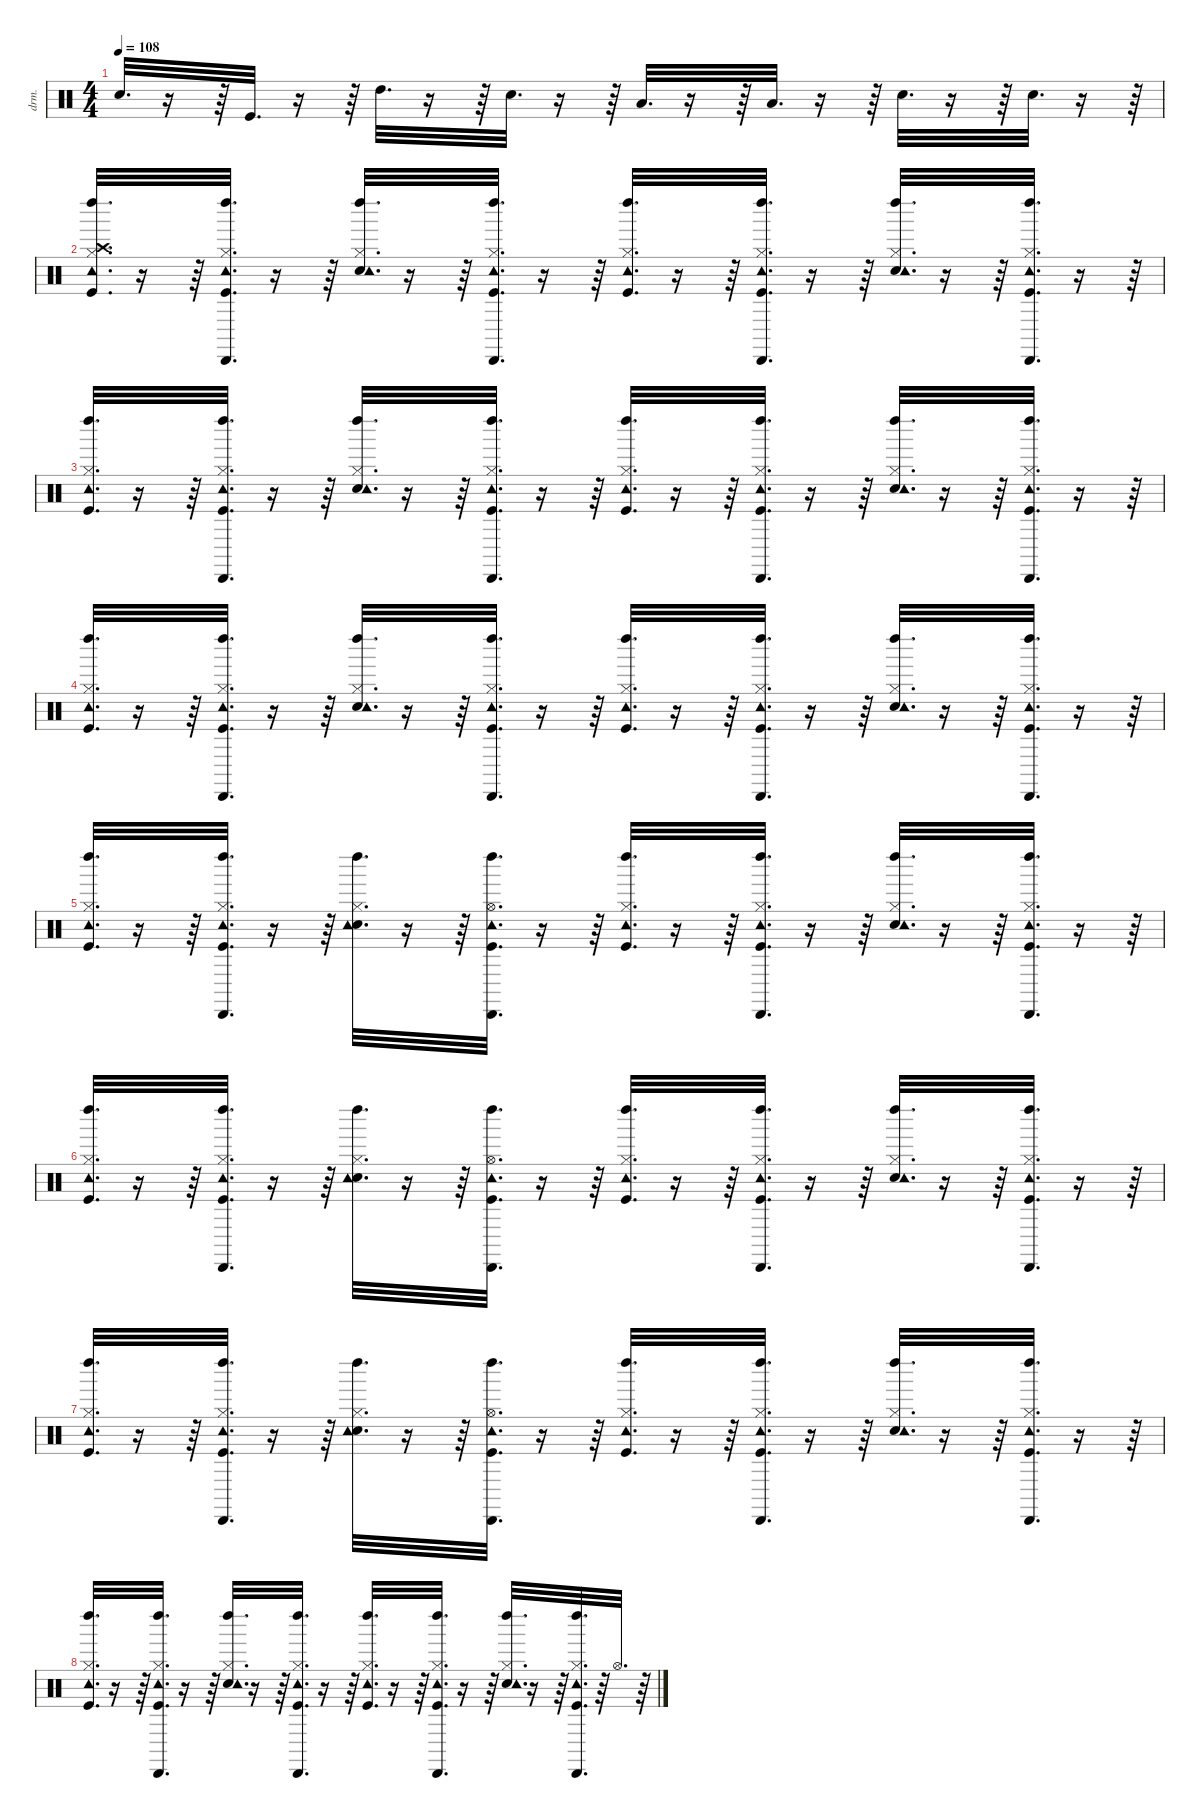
\defaultSystemsLayout 4
\hideDynamics
\bracketExtendMode nobrackets
\otherSystemsTrackNameOrientation horizontal
\track ("Percussions" "drm.") {instrument percussion}
\staff {score}
\articulation defaults
\ts (4 4)
\tempo 108
\clef neutral
\ks c "Snare (hit) 2".32{d dy f}
r.16 r.64 "Kick (hit)".32{d} r.16 r.64 "High Tom (hit)".32{d} r.16 r.64 "Snare (hit) 2".32{d} r.16 r.64 "Low Tom (hit)".32{d} r.16 r.64 "Low Tom (hit)".32{d} r.16 r.64 "Snare (hit) 2".32{d} r.16 r.64 "Snare (hit) 2".32{d} r.16 r.64 |
("Left Maraca (hit)" "Crash high (hit)" "Kick (hit)" "Hi-Hat (closed)" "Tambourine (hit)").32{d} r.16 r.64 ("Cabasa (hit)" "Tambourine (hit)" "Kick (hit)" "Hi-Hat (closed)" "Left Maraca (hit)").32{d} r.16 r.64 ("Left Maraca (hit)" "Snare (hit) 2" "Hi-Hat (closed)" "Tambourine (hit)").32{d} r.16 r.64 ("Cabasa (hit)" "Tambourine (hit)" "Kick (hit)" "Hi-Hat (closed)" "Left Maraca (hit)").32{d} r.16 r.64 ("Left Maraca (hit)" "Kick (hit)" "Hi-Hat (closed)" "Tambourine (hit)").32{d} r.16 r.64 ("Cabasa (hit)" "Tambourine (hit)" "Kick (hit)" "Hi-Hat (closed)" "Left Maraca (hit)").32{d} r.16 r.64 ("Left Maraca (hit)" "Snare (hit) 2" "Hi-Hat (closed)" "Tambourine (hit)").32{d} r.16 r.64 ("Cabasa (hit)" "Tambourine (hit)" "Kick (hit)" "Hi-Hat (closed)" "Left Maraca (hit)").32{d} r.16 r.64 |
("Left Maraca (hit)" "Kick (hit)" "Hi-Hat (closed)" "Tambourine (hit)").32{d} r.16 r.64 ("Cabasa (hit)" "Tambourine (hit)" "Kick (hit)" "Hi-Hat (closed)" "Left Maraca (hit)").32{d} r.16 r.64 ("Left Maraca (hit)" "Snare (hit) 2" "Hi-Hat (closed)" "Tambourine (hit)").32{d} r.16 r.64 ("Cabasa (hit)" "Tambourine (hit)" "Kick (hit)" "Hi-Hat (closed)" "Left Maraca (hit)").32{d} r.16 r.64 ("Left Maraca (hit)" "Kick (hit)" "Hi-Hat (closed)" "Tambourine (hit)").32{d} r.16 r.64 ("Cabasa (hit)" "Tambourine (hit)" "Kick (hit)" "Hi-Hat (closed)" "Left Maraca (hit)").32{d} r.16 r.64 ("Left Maraca (hit)" "Snare (hit) 2" "Hi-Hat (closed)" "Tambourine (hit)").32{d} r.16 r.64 ("Cabasa (hit)" "Tambourine (hit)" "Kick (hit)" "Hi-Hat (closed)" "Left Maraca (hit)").32{d} r.16 r.64 |
("Left Maraca (hit)" "Kick (hit)" "Hi-Hat (closed)" "Tambourine (hit)").32{d} r.16 r.64 ("Cabasa (hit)" "Tambourine (hit)" "Kick (hit)" "Hi-Hat (closed)" "Left Maraca (hit)").32{d} r.16 r.64 ("Left Maraca (hit)" "Snare (hit) 2" "Hi-Hat (closed)" "Tambourine (hit)").32{d} r.16 r.64 ("Cabasa (hit)" "Tambourine (hit)" "Kick (hit)" "Hi-Hat (closed)" "Left Maraca (hit)").32{d} r.16 r.64 ("Left Maraca (hit)" "Kick (hit)" "Hi-Hat (closed)" "Tambourine (hit)").32{d} r.16 r.64 ("Cabasa (hit)" "Tambourine (hit)" "Kick (hit)" "Hi-Hat (closed)" "Left Maraca (hit)").32{d} r.16 r.64 ("Left Maraca (hit)" "Snare (hit) 2" "Hi-Hat (closed)" "Tambourine (hit)").32{d} r.16 r.64 ("Cabasa (hit)" "Tambourine (hit)" "Kick (hit)" "Hi-Hat (closed)" "Left Maraca (hit)").32{d} r.16 r.64 |
("Left Maraca (hit)" "Kick (hit)" "Hi-Hat (closed)" "Tambourine (hit)").32{d} r.16 r.64 ("Cabasa (hit)" "Tambourine (hit)" "Kick (hit)" "Hi-Hat (closed)" "Left Maraca (hit)").32{d} r.16 r.64 ("Left Maraca (hit)" "Snare (hit) 2" "Hi-Hat (closed)" "Tambourine (hit)").32{d} r.16 r.64 ("Cabasa (hit)" "Tambourine (hit)" "Kick (hit)" "Hi-Hat (open)" "Left Maraca (hit)").32{d} r.16 r.64 ("Left Maraca (hit)" "Kick (hit)" "Hi-Hat (closed)" "Tambourine (hit)").32{d} r.16 r.64 ("Cabasa (hit)" "Tambourine (hit)" "Kick (hit)" "Hi-Hat (closed)" "Left Maraca (hit)").32{d} r.16 r.64 ("Left Maraca (hit)" "Snare (hit) 2" "Hi-Hat (closed)" "Tambourine (hit)").32{d} r.16 r.64 ("Cabasa (hit)" "Tambourine (hit)" "Kick (hit)" "Hi-Hat (closed)" "Left Maraca (hit)").32{d} r.16 r.64 |
("Left Maraca (hit)" "Kick (hit)" "Hi-Hat (closed)" "Tambourine (hit)").32{d} r.16 r.64 ("Cabasa (hit)" "Tambourine (hit)" "Kick (hit)" "Hi-Hat (closed)" "Left Maraca (hit)").32{d} r.16 r.64 ("Left Maraca (hit)" "Snare (hit) 2" "Hi-Hat (closed)" "Tambourine (hit)").32{d} r.16 r.64 ("Cabasa (hit)" "Tambourine (hit)" "Kick (hit)" "Hi-Hat (open)" "Left Maraca (hit)").32{d} r.16 r.64 ("Left Maraca (hit)" "Kick (hit)" "Hi-Hat (closed)" "Tambourine (hit)").32{d} r.16 r.64 ("Cabasa (hit)" "Tambourine (hit)" "Kick (hit)" "Hi-Hat (closed)" "Left Maraca (hit)").32{d} r.16 r.64 ("Left Maraca (hit)" "Snare (hit) 2" "Hi-Hat (closed)" "Tambourine (hit)").32{d} r.16 r.64 ("Cabasa (hit)" "Tambourine (hit)" "Kick (hit)" "Hi-Hat (closed)" "Left Maraca (hit)").32{d} r.16 r.64 |
("Left Maraca (hit)" "Kick (hit)" "Hi-Hat (closed)" "Tambourine (hit)").32{d} r.16 r.64 ("Cabasa (hit)" "Tambourine (hit)" "Kick (hit)" "Hi-Hat (closed)" "Left Maraca (hit)").32{d} r.16 r.64 ("Left Maraca (hit)" "Snare (hit) 2" "Hi-Hat (closed)" "Tambourine (hit)").32{d} r.16 r.64 ("Cabasa (hit)" "Tambourine (hit)" "Kick (hit)" "Hi-Hat (open)" "Left Maraca (hit)").32{d} r.16 r.64 ("Left Maraca (hit)" "Kick (hit)" "Hi-Hat (closed)" "Tambourine (hit)").32{d} r.16 r.64 ("Cabasa (hit)" "Tambourine (hit)" "Kick (hit)" "Hi-Hat (closed)" "Left Maraca (hit)").32{d} r.16 r.64 ("Left Maraca (hit)" "Snare (hit) 2" "Hi-Hat (closed)" "Tambourine (hit)").32{d} r.16 r.64 ("Cabasa (hit)" "Tambourine (hit)" "Kick (hit)" "Hi-Hat (closed)" "Left Maraca (hit)").32{d} r.16 r.64 |
("Left Maraca (hit)" "Kick (hit)" "Hi-Hat (closed)" "Tambourine (hit)").32{d} r.16 r.64 ("Cabasa (hit)" "Tambourine (hit)" "Kick (hit)" "Hi-Hat (closed)" "Left Maraca (hit)").32{d} r.16 r.64 ("Left Maraca (hit)" "Snare (hit) 2" "Hi-Hat (closed)" "Tambourine (hit)").32{d} r.16 r.64 ("Cabasa (hit)" "Tambourine (hit)" "Kick (hit)" "Hi-Hat (closed)" "Left Maraca (hit)").32{d} r.16 r.64 ("Left Maraca (hit)" "Kick (hit)" "Hi-Hat (closed)" "Tambourine (hit)").32{d} r.16 r.64 ("Cabasa (hit)" "Tambourine (hit)" "Kick (hit)" "Hi-Hat (closed)" "Left Maraca (hit)").32{d} r.16 r.64 ("Left Maraca (hit)" "Snare (hit) 2" "Hi-Hat (closed)" "Tambourine (hit)").32{d} r.16 r.64 ("Cabasa (hit)" "Tambourine (hit)" "Kick (hit)" "Hi-Hat (closed)" "Left Maraca (hit)").32{d} r.64 "Hi-Hat (open)".32{d} r.64
